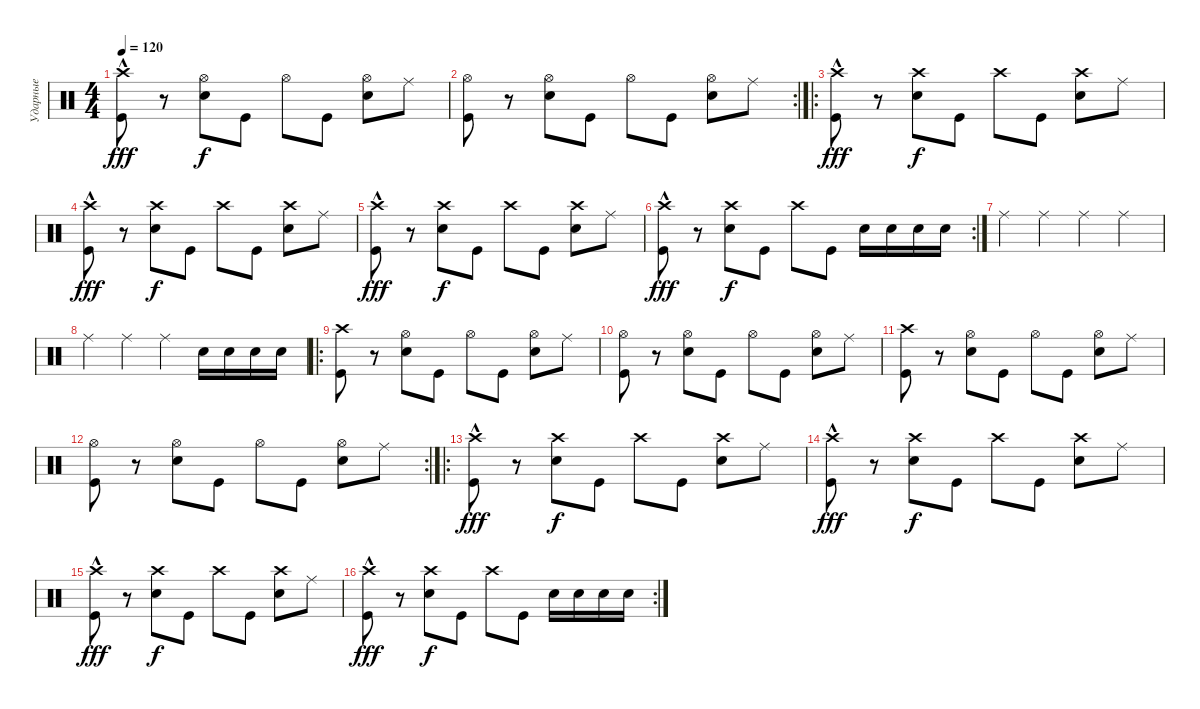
\track ("Ударные" "Ударные") {instrument percussion}
\staff {score}
\articulation defaults
\ts (4 4)
\tempo 120
\clef neutral
\ks c
("Kick (hit)" "Crash high (hit)"{hac}).8{dy fff} r.8 ("Snare (hit) 2" "Hi-Hat (open)").8{dy f} "Kick (hit)".8 "Hi-Hat (open)".8 "Kick (hit)".8 ("Snare (hit) 2" "Hi-Hat (open)").8 "Ride (middle)".8 |
\rc 2
("Kick (hit)" "Hi-Hat (open)").8 r.8 ("Snare (hit) 2" "Hi-Hat (open)").8 "Kick (hit)".8 "Hi-Hat (open)".8 "Kick (hit)".8 ("Snare (hit) 2" "Hi-Hat (open)").8 "Ride (middle)".8 |
\ro
("Kick (hit)" "Crash high (hit)"{hac}).8{dy fff} r.8 ("Snare (hit) 2" "Crash high (hit)").8{dy f} "Kick (hit)".8 "Crash high (hit)".8 "Kick (hit)".8 ("Snare (hit) 2" "Crash high (hit)").8 "Ride (middle)".8 |
("Kick (hit)" "Crash high (hit)"{hac}).8{dy fff} r.8 ("Snare (hit) 2" "Crash high (hit)").8{dy f} "Kick (hit)".8 "Crash high (hit)".8 "Kick (hit)".8 ("Snare (hit) 2" "Crash high (hit)").8 "Ride (middle)".8 |
("Kick (hit)" "Crash high (hit)"{hac}).8{dy fff} r.8 ("Snare (hit) 2" "Crash high (hit)").8{dy f} "Kick (hit)".8 "Crash high (hit)".8 "Kick (hit)".8 ("Snare (hit) 2" "Crash high (hit)").8 "Ride (middle)".8 |
\rc 2
("Kick (hit)" "Crash high (hit)"{hac}).8{dy fff} r.8 ("Snare (hit) 2" "Crash high (hit)").8{dy f} "Kick (hit)".8 "Crash high (hit)".8 "Kick (hit)".8 "Snare (hit) 2".16 "Snare (hit) 2".16 "Snare (hit) 2".16 "Snare (hit) 2".16 |
"Ride (middle)".4 "Ride (middle)".4 "Ride (middle)".4 "Ride (middle)".4 |
"Ride (middle)".4 "Ride (middle)".4 "Ride (middle)".4 "Snare (hit) 2".16 "Snare (hit) 2".16 "Snare (hit) 2".16 "Snare (hit) 2".16 |
\ro
("Kick (hit)" "Crash high (hit)").8 r.8 ("Snare (hit) 2" "Hi-Hat (open)").8 "Kick (hit)".8 "Hi-Hat (open)".8 "Kick (hit)".8 ("Snare (hit) 2" "Hi-Hat (open)").8 "Ride (middle)".8 |
("Kick (hit)" "Hi-Hat (open)").8 r.8 ("Snare (hit) 2" "Hi-Hat (open)").8 "Kick (hit)".8 "Hi-Hat (open)".8 "Kick (hit)".8 ("Snare (hit) 2" "Hi-Hat (open)").8 "Ride (middle)".8 |
("Kick (hit)" "Crash high (hit)").8 r.8 ("Snare (hit) 2" "Hi-Hat (open)").8 "Kick (hit)".8 "Hi-Hat (open)".8 "Kick (hit)".8 ("Snare (hit) 2" "Hi-Hat (open)").8 "Ride (middle)".8 |
\rc 2
("Kick (hit)" "Hi-Hat (open)").8 r.8 ("Snare (hit) 2" "Hi-Hat (open)").8 "Kick (hit)".8 "Hi-Hat (open)".8 "Kick (hit)".8 ("Snare (hit) 2" "Hi-Hat (open)").8 "Ride (middle)".8 |
\ro
("Kick (hit)" "Crash high (hit)"{hac}).8{dy fff} r.8 ("Snare (hit) 2" "Crash high (hit)").8{dy f} "Kick (hit)".8 "Crash high (hit)".8 "Kick (hit)".8 ("Snare (hit) 2" "Crash high (hit)").8 "Ride (middle)".8 |
("Kick (hit)" "Crash high (hit)"{hac}).8{dy fff} r.8 ("Snare (hit) 2" "Crash high (hit)").8{dy f} "Kick (hit)".8 "Crash high (hit)".8 "Kick (hit)".8 ("Snare (hit) 2" "Crash high (hit)").8 "Ride (middle)".8 |
("Kick (hit)" "Crash high (hit)"{hac}).8{dy fff} r.8 ("Snare (hit) 2" "Crash high (hit)").8{dy f} "Kick (hit)".8 "Crash high (hit)".8 "Kick (hit)".8 ("Snare (hit) 2" "Crash high (hit)").8 "Ride (middle)".8 |
\rc 2
("Kick (hit)" "Crash high (hit)"{hac}).8{dy fff} r.8 ("Snare (hit) 2" "Crash high (hit)").8{dy f} "Kick (hit)".8 "Crash high (hit)".8 "Kick (hit)".8 "Snare (hit) 2".16 "Snare (hit) 2".16 "Snare (hit) 2".16 "Snare (hit) 2".16
